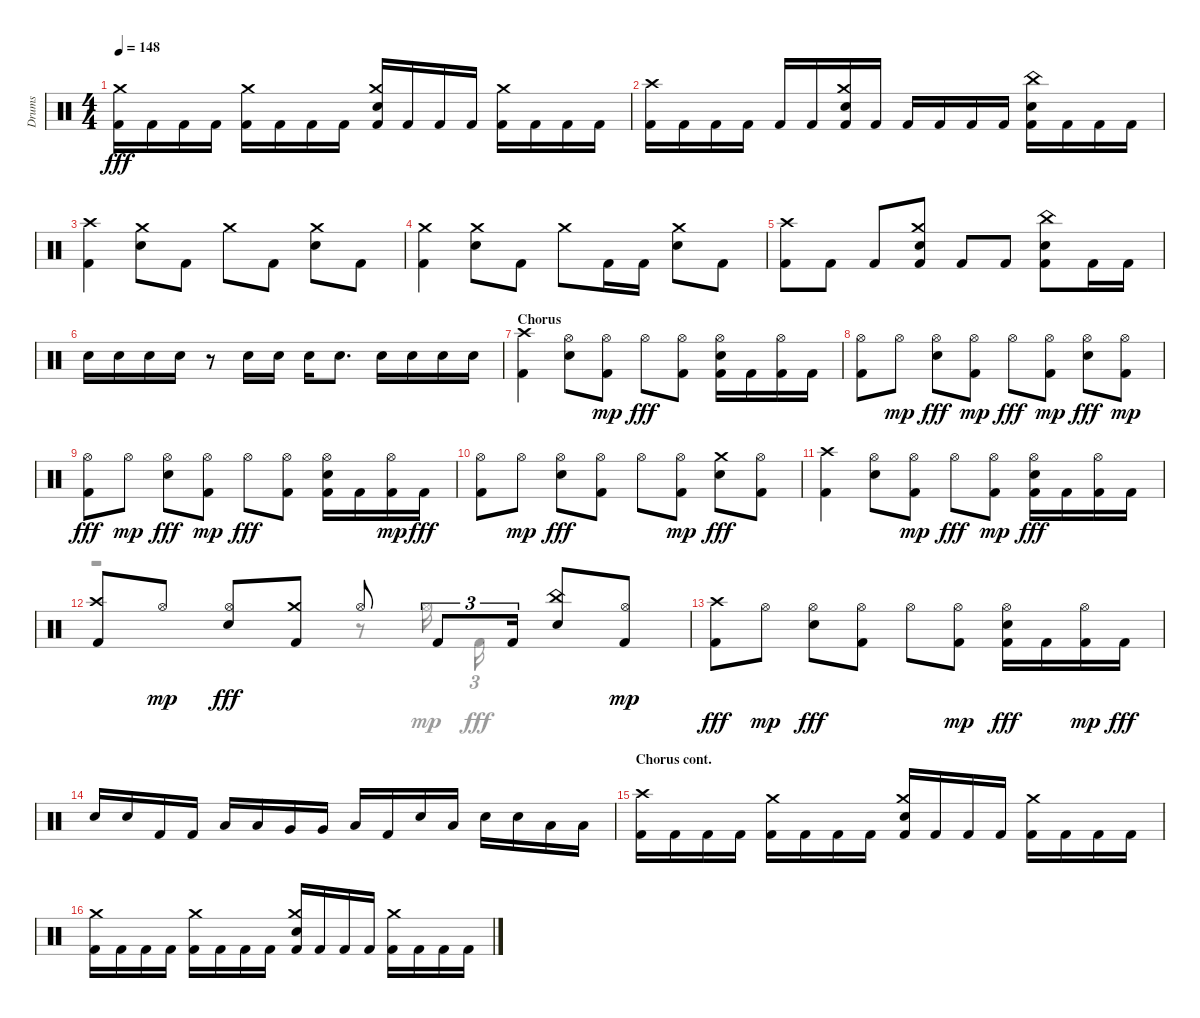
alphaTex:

\track ("Drums" "Drums") {instrument percussion}
\staff {score}
\articulation defaults
\voice
\ts (4 4)
\tempo 148
\clef neutral
\ks aminor
("Kick (hit) 2" "Crash medium (hit)").16{dy fff} "Kick (hit) 2".16 "Kick (hit) 2".16 "Kick (hit) 2".16 ("Crash medium (hit)" "Kick (hit) 2").16 "Kick (hit) 2".16 "Kick (hit) 2".16 "Kick (hit) 2".16 ("Crash medium (hit)" "Snare (hit) 2" "Kick (hit) 2").16 "Kick (hit) 2".16 "Kick (hit) 2".16 "Kick (hit) 2".16 ("Crash medium (hit)" "Kick (hit) 2").16 "Kick (hit) 2".16 "Kick (hit) 2".16 "Kick (hit) 2".16 |
("Kick (hit) 2" "Crash high (hit)").16 "Kick (hit) 2".16 "Kick (hit) 2".16 "Kick (hit) 2".16 "Kick (hit) 2".16 "Kick (hit) 2".16 ("Crash medium (hit)" "Kick (hit) 2" "Snare (hit) 2").16 "Kick (hit) 2".16 "Kick (hit) 2".16 "Kick (hit) 2".16 "Kick (hit) 2".16 "Kick (hit) 2".16 ("Snare (hit) 2" "Kick (hit) 2" "China (hit)").16 "Kick (hit) 2".16 "Kick (hit) 2".16 "Kick (hit) 2".16 |
("Kick (hit) 2" "Crash high (hit)").4 ("Crash medium (hit)" "Snare (hit) 2").8 "Kick (hit) 2".8 "Crash medium (hit)".8 "Kick (hit) 2".8 ("Snare (hit) 2" "Crash medium (hit)").8 "Kick (hit) 2".8 |
("Kick (hit) 2" "Crash medium (hit)").4 ("Snare (hit) 2" "Crash medium (hit)").8 "Kick (hit) 2".8 "Crash medium (hit)".8 "Kick (hit) 2".16 "Kick (hit) 2".16 ("Snare (hit) 2" "Crash medium (hit)").8 "Kick (hit) 2".8 |
("Crash high (hit)" "Kick (hit) 2").8 "Kick (hit) 2".8 "Kick (hit) 2".8 ("Kick (hit) 2" "Crash medium (hit)" "Snare (hit) 2").8 "Kick (hit) 2".8 "Kick (hit) 2".8 ("Kick (hit) 2" "Snare (hit) 2" "China (hit)").8 "Kick (hit) 2".16 "Kick (hit) 2".16 |
"Snare (hit) 2".16 "Snare (hit) 2".16 "Snare (hit) 2".16 "Snare (hit) 2".16 r.8 "Snare (hit) 2".16 "Snare (hit) 2".16 "Snare (hit) 2".16 "Snare (hit) 2".8{d} "Snare (hit) 2".16 "Snare (hit) 2".16 "Snare (hit) 2".16 "Snare (hit) 2".16 |
\section ("" "Chorus")
("Kick (hit) 2" "Crash high (hit)").4 ("Snare (hit) 2" "Hi-Hat (open)").8 ("Kick (hit) 2" "Hi-Hat (open)").8{dy mp} "Hi-Hat (open)".8{dy fff} ("Kick (hit) 2" "Hi-Hat (open)").8 ("Hi-Hat (open)" "Snare (hit) 2" "Kick (hit) 2").16 "Kick (hit) 2".16 ("Kick (hit) 2" "Hi-Hat (open)").16 "Kick (hit) 2".16 |
("Hi-Hat (open)" "Kick (hit) 2").8 "Hi-Hat (open)".8{dy mp} ("Snare (hit) 2" "Hi-Hat (open)").8{dy fff} ("Hi-Hat (open)" "Kick (hit) 2").8{dy mp} "Hi-Hat (open)".8{dy fff} ("Kick (hit) 2" "Hi-Hat (open)").8{dy mp} ("Hi-Hat (open)" "Snare (hit) 2").8{dy fff} ("Kick (hit) 2" "Hi-Hat (open)").8{dy mp} |
("Kick (hit) 2" "Hi-Hat (open)").8{dy fff} "Hi-Hat (open)".8{dy mp} ("Hi-Hat (open)" "Snare (hit) 2").8{dy fff} ("Hi-Hat (open)" "Kick (hit) 2").8{dy mp} "Hi-Hat (open)".8{dy fff} ("Kick (hit) 2" "Hi-Hat (open)").8 ("Snare (hit) 2" "Kick (hit) 2" "Hi-Hat (open)").16 "Kick (hit) 2".16 ("Hi-Hat (open)" "Kick (hit) 2").16{dy mp} "Kick (hit) 2".16{dy fff} |
("Hi-Hat (open)" "Kick (hit) 2").8 "Hi-Hat (open)".8{dy mp} ("Snare (hit) 2" "Hi-Hat (open)").8{dy fff} ("Kick (hit) 2" "Hi-Hat (open)").8 "Hi-Hat (open)".8 ("Kick (hit) 2" "Hi-Hat (open)").8{dy mp} ("Crash medium (hit)" "Snare (hit) 2").8{dy fff} ("Kick (hit) 2" "Hi-Hat (open)").8 |
("Kick (hit) 2" "Crash high (hit)").4 ("Hi-Hat (open)" "Snare (hit) 2").8 ("Hi-Hat (open)" "Kick (hit) 2").8{dy mp} "Hi-Hat (open)".8{dy fff} ("Hi-Hat (open)" "Kick (hit) 2").8{dy mp} ("Kick (hit) 2" "Hi-Hat (open)" "Snare (hit) 2").16{dy fff} "Kick (hit) 2".16 ("Kick (hit) 2" "Hi-Hat (open)").16 "Kick (hit) 2".16 |
("Kick (hit) 2" "Crash high (hit)").8 "Hi-Hat (open)".8{dy mp} ("Snare (hit) 2" "Hi-Hat (open)").8{dy fff} ("Crash medium (hit)" "Kick (hit) 2").8 "Hi-Hat (open)".8 "Kick (hit) 2".8{tu (3 2)} "Kick (hit) 2".16{tu (3 2)} ("Snare (hit) 2" "China (hit)").8 ("Kick (hit) 2" "Hi-Hat (open)").8{dy mp} |
("Kick (hit) 2" "Crash high (hit)").8{dy fff} "Hi-Hat (open)".8{dy mp} ("Hi-Hat (open)" "Snare (hit) 2").8{dy fff} ("Kick (hit) 2" "Hi-Hat (open)").8 "Hi-Hat (open)".8 ("Hi-Hat (open)" "Kick (hit) 2").8{dy mp} ("Hi-Hat (open)" "Kick (hit) 2" "Snare (hit) 2").16{dy fff} "Kick (hit) 2".16 ("Kick (hit) 2" "Hi-Hat (open)").16{dy mp} "Kick (hit) 2".16{dy fff} |
"Snare (hit) 2".16 "Snare (hit) 2".16 "Kick (hit) 2".16 "Kick (hit) 2".16 "Low Tom (hit)".16 "Low Tom (hit)".16 "Very Low Tom (hit)".16 "Very Low Tom (hit)".16 "Low Floor Tom (hit)".16 "Kick (hit) 2".16 "Snare (hit) 2".16 "Low Floor Tom (hit)".16 "Snare (hit) 2".16 "Snare (hit) 2".16 "Low Floor Tom (hit)".16 "Low Floor Tom (hit)".16 |
\section ("" "Chorus cont.")
("Kick (hit) 2" "Crash high (hit)").16 "Kick (hit) 2".16 "Kick (hit) 2".16 "Kick (hit) 2".16 ("Crash medium (hit)" "Kick (hit) 2").16 "Kick (hit) 2".16 "Kick (hit) 2".16 "Kick (hit) 2".16 ("Crash medium (hit)" "Snare (hit) 2" "Kick (hit) 2").16 "Kick (hit) 2".16 "Kick (hit) 2".16 "Kick (hit) 2".16 ("Crash medium (hit)" "Kick (hit) 2").16 "Kick (hit) 2".16 "Kick (hit) 2".16 "Kick (hit) 2".16 |
("Kick (hit) 2" "Crash medium (hit)").16 "Kick (hit) 2".16 "Kick (hit) 2".16 "Kick (hit) 2".16 ("Crash medium (hit)" "Kick (hit) 2").16 "Kick (hit) 2".16 "Kick (hit) 2".16 "Kick (hit) 2".16 ("Snare (hit) 2" "Crash medium (hit)" "Kick (hit) 2").16 "Kick (hit) 2".16 "Kick (hit) 2".16 "Kick (hit) 2".16 ("Crash medium (hit)" "Kick (hit) 2").16 "Kick (hit) 2".16 "Kick (hit) 2".16 "Kick (hit) 2".16
\voice
\clef neutral
\ottava regular
\simile none
\ks aminor
|
|
|
|
|
|
|
|
|
|
|
r.2 r.8 "Hi-Hat (open)".16{dy mp} "Kick (hit) 2".16{tu (3 2) dy fff} |
|
|
|
